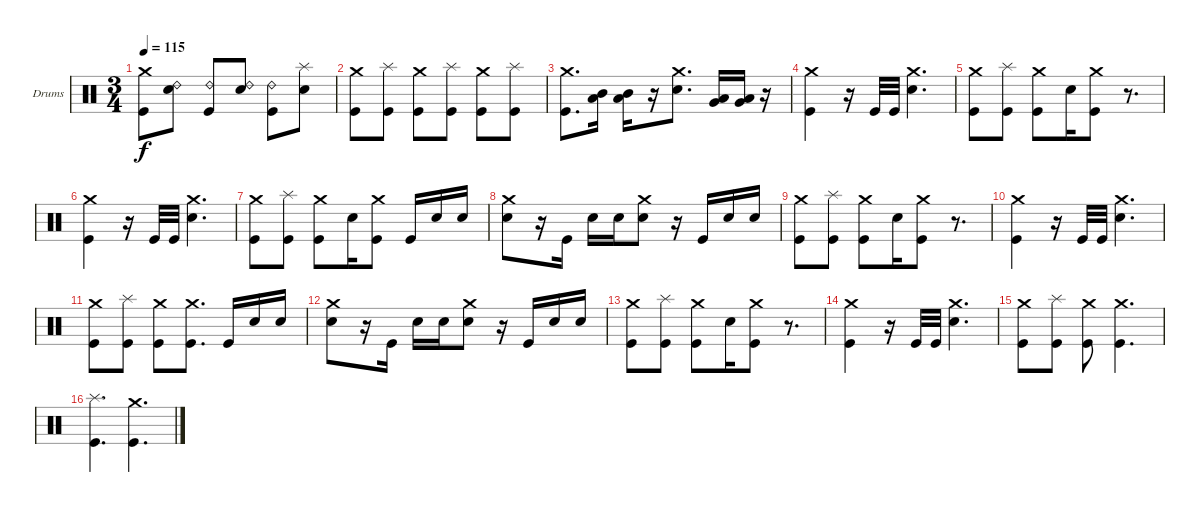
\bracketExtendMode groupsimilarinstruments
\firstSystemTrackNameOrientation horizontal
\otherSystemsTrackNameOrientation horizontal
\track ("Drumkit" "Drums") {instrument percussion}
\staff {score}
\articulation defaults
\ts (3 4)
\tempo 115
\clef neutral
\ks c
("Crash medium (hit)" "Kick (hit)").8{dy f} ("Ride (bell) 2" "Snare (hit) 2").8 ("Ride (bell) 2" "Kick (hit)").8 ("Ride (bell) 2" "Snare (hit) 2").8 ("Ride (bell) 2" "Kick (hit)").8 ("Splash (hit)" "Snare (hit) 2").8 |
("Crash medium (hit)" "Kick (hit)").8 ("Splash (hit)" "Kick (hit)").8 ("Crash medium (hit)" "Kick (hit)").8 ("Splash (hit)" "Kick (hit)").8 ("Crash medium (hit)" "Kick (hit)").8 ("Splash (hit)" "Kick (hit)").8 |
("Crash medium (hit)" "Kick (hit)").8{d} ("Mid Tom (hit)" "Low Tom (hit)").16 ("Mid Tom (hit)" "Low Tom (hit)").16 r.16 ("Crash medium (hit)" "Snare (hit) 2").8{d} ("Low Tom (hit)" "Very Low Tom (hit)").16 ("Low Tom (hit)" "Very Low Tom (hit)").16 r.16 |
("Crash medium (hit)" "Kick (hit)").4 r.16 "Kick (hit)".32 "Kick (hit)".32 ("Crash medium (hit)" "Snare (hit) 2").4{d} |
("Crash medium (hit)" "Kick (hit)").8 ("Splash (hit)" "Kick (hit)").8 ("Crash medium (hit)" "Kick (hit)").8 "Snare (hit) 2".16 ("Crash medium (hit)" "Kick (hit)").8 r.8{d} |
("Crash medium (hit)" "Kick (hit)").4 r.16 "Kick (hit)".32 "Kick (hit)".32 ("Crash medium (hit)" "Snare (hit) 2").4{d} |
("Crash medium (hit)" "Kick (hit)").8 ("Splash (hit)" "Kick (hit)").8 ("Crash medium (hit)" "Kick (hit)").8 "Snare (hit) 2".16 ("Crash medium (hit)" "Kick (hit)").8 "Kick (hit)".16 "Snare (hit) 2".16 "Snare (hit) 2".16 |
("Crash medium (hit)" "Snare (hit) 2").8 r.16 "Kick (hit)".16 "Snare (hit) 2".16 "Snare (hit) 2".16 ("Crash medium (hit)" "Snare (hit) 2").8 r.16 "Kick (hit)".16 "Snare (hit) 2".16 "Snare (hit) 2".16 |
("Crash medium (hit)" "Kick (hit)").8 ("Splash (hit)" "Kick (hit)").8 ("Crash medium (hit)" "Kick (hit)").8 "Snare (hit) 2".16 ("Crash medium (hit)" "Kick (hit)").8 r.8{d} |
("Crash medium (hit)" "Kick (hit)").4 r.16 "Kick (hit)".32 "Kick (hit)".32 ("Crash medium (hit)" "Snare (hit) 2").4{d} |
("Crash medium (hit)" "Kick (hit)").8 ("Splash (hit)" "Kick (hit)").8 ("Crash medium (hit)" "Kick (hit)").8 ("Crash medium (hit)" "Kick (hit)").8{d} "Kick (hit)".16 "Snare (hit) 2".16 "Snare (hit) 2".16 |
("Crash medium (hit)" "Snare (hit) 2").8 r.16 "Kick (hit)".16 "Snare (hit) 2".16 "Snare (hit) 2".16 ("Crash medium (hit)" "Snare (hit) 2").8 r.16 "Kick (hit)".16 "Snare (hit) 2".16 "Snare (hit) 2".16 |
("Crash medium (hit)" "Kick (hit)").8 ("Splash (hit)" "Kick (hit)").8 ("Crash medium (hit)" "Kick (hit)").8 "Snare (hit) 2".16 ("Crash medium (hit)" "Kick (hit)").8 r.8{d} |
("Crash medium (hit)" "Kick (hit)").4 r.16 "Kick (hit)".32 "Kick (hit)".32 ("Crash medium (hit)" "Snare (hit) 2").4{d} |
("Crash medium (hit)" "Kick (hit)").8 ("Splash (hit)" "Kick (hit)").8 ("Crash medium (hit)" "Kick (hit)").8 ("Crash medium (hit)" "Kick (hit)").4{d} |
("Splash (hit)" "Kick (hit)").4{d} ("Crash medium (hit)" "Kick (hit)").4{d}
